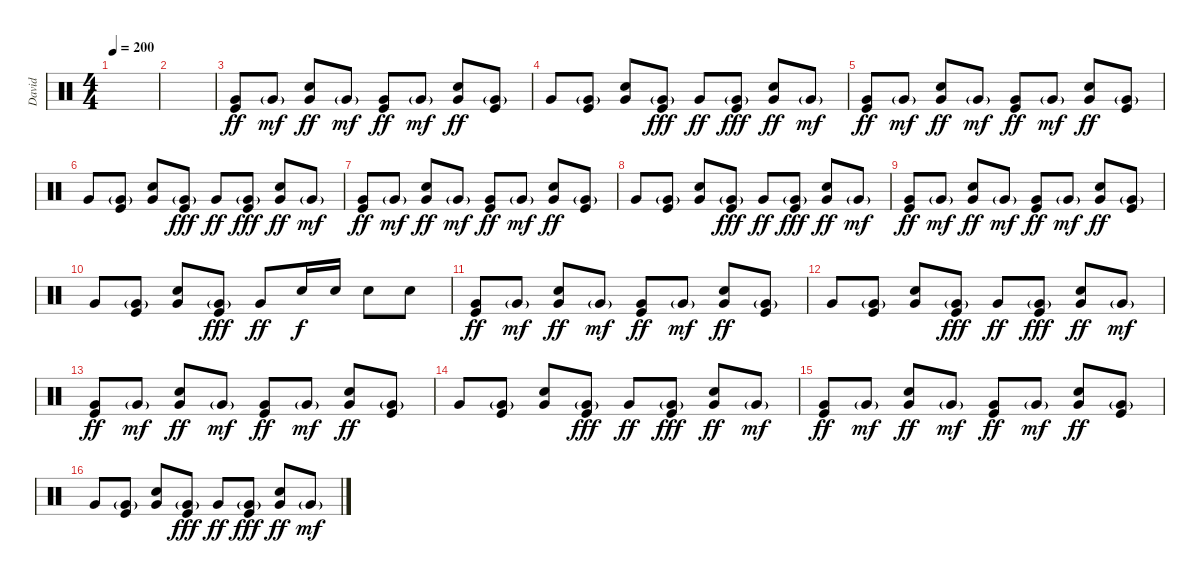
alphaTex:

\track ("David" "David") {instrument percussion}
\staff {score}
\articulation defaults
\ts (4 4)
\tempo 200
\clef neutral
\ks c
|
|
("Very Low Tom (hit)" "Kick (hit)").8{dy ff} "Very Low Tom (hit)"{g}.8{dy mf} ("Very Low Tom (hit)" "Electric Snare (hit)").8{dy ff} "Very Low Tom (hit)"{g}.8{dy mf} ("Very Low Tom (hit)" "Kick (hit)").8{dy ff} "Very Low Tom (hit)"{g}.8{dy mf} ("Very Low Tom (hit)" "Electric Snare (hit)").8{dy ff} ("Very Low Tom (hit)"{g} "Kick (hit)").8 |
"Very Low Tom (hit)".8 ("Very Low Tom (hit)"{g} "Kick (hit)").8 ("Very Low Tom (hit)" "Electric Snare (hit)").8 ("Very Low Tom (hit)"{g} "Kick (hit)").8{dy fff} "Very Low Tom (hit)".8{dy ff} ("Very Low Tom (hit)"{g} "Kick (hit)").8{dy fff} ("Very Low Tom (hit)" "Electric Snare (hit)").8{dy ff} "Very Low Tom (hit)"{g}.8{dy mf} |
("Very Low Tom (hit)" "Kick (hit)").8{dy ff} "Very Low Tom (hit)"{g}.8{dy mf} ("Very Low Tom (hit)" "Electric Snare (hit)").8{dy ff} "Very Low Tom (hit)"{g}.8{dy mf} ("Very Low Tom (hit)" "Kick (hit)").8{dy ff} "Very Low Tom (hit)"{g}.8{dy mf} ("Very Low Tom (hit)" "Electric Snare (hit)").8{dy ff} ("Very Low Tom (hit)"{g} "Kick (hit)").8 |
"Very Low Tom (hit)".8 ("Very Low Tom (hit)"{g} "Kick (hit)").8 ("Very Low Tom (hit)" "Electric Snare (hit)").8 ("Very Low Tom (hit)"{g} "Kick (hit)").8{dy fff} "Very Low Tom (hit)".8{dy ff} ("Very Low Tom (hit)"{g} "Kick (hit)").8{dy fff} ("Very Low Tom (hit)" "Electric Snare (hit)").8{dy ff} "Very Low Tom (hit)"{g}.8{dy mf} |
("Very Low Tom (hit)" "Kick (hit)").8{dy ff} "Very Low Tom (hit)"{g}.8{dy mf} ("Very Low Tom (hit)" "Electric Snare (hit)").8{dy ff} "Very Low Tom (hit)"{g}.8{dy mf} ("Very Low Tom (hit)" "Kick (hit)").8{dy ff} "Very Low Tom (hit)"{g}.8{dy mf} ("Very Low Tom (hit)" "Electric Snare (hit)").8{dy ff} ("Very Low Tom (hit)"{g} "Kick (hit)").8 |
"Very Low Tom (hit)".8 ("Very Low Tom (hit)"{g} "Kick (hit)").8 ("Very Low Tom (hit)" "Electric Snare (hit)").8 ("Very Low Tom (hit)"{g} "Kick (hit)").8{dy fff} "Very Low Tom (hit)".8{dy ff} ("Very Low Tom (hit)"{g} "Kick (hit)").8{dy fff} ("Very Low Tom (hit)" "Electric Snare (hit)").8{dy ff} "Very Low Tom (hit)"{g}.8{dy mf} |
("Very Low Tom (hit)" "Kick (hit)").8{dy ff} "Very Low Tom (hit)"{g}.8{dy mf} ("Very Low Tom (hit)" "Electric Snare (hit)").8{dy ff} "Very Low Tom (hit)"{g}.8{dy mf} ("Very Low Tom (hit)" "Kick (hit)").8{dy ff} "Very Low Tom (hit)"{g}.8{dy mf} ("Very Low Tom (hit)" "Electric Snare (hit)").8{dy ff} ("Very Low Tom (hit)"{g} "Kick (hit)").8 |
"Very Low Tom (hit)".8 ("Very Low Tom (hit)"{g} "Kick (hit)").8 ("Very Low Tom (hit)" "Electric Snare (hit)").8 ("Very Low Tom (hit)"{g} "Kick (hit)").8{dy fff} "Very Low Tom (hit)".8{dy ff} "Electric Snare (hit)".16{dy f} "Electric Snare (hit)".16 "Electric Snare (hit)".8 "Electric Snare (hit)".8 |
("Very Low Tom (hit)" "Kick (hit)").8{dy ff} "Very Low Tom (hit)"{g}.8{dy mf} ("Very Low Tom (hit)" "Electric Snare (hit)").8{dy ff} "Very Low Tom (hit)"{g}.8{dy mf} ("Very Low Tom (hit)" "Kick (hit)").8{dy ff} "Very Low Tom (hit)"{g}.8{dy mf} ("Very Low Tom (hit)" "Electric Snare (hit)").8{dy ff} ("Very Low Tom (hit)"{g} "Kick (hit)").8 |
"Very Low Tom (hit)".8 ("Very Low Tom (hit)"{g} "Kick (hit)").8 ("Very Low Tom (hit)" "Electric Snare (hit)").8 ("Very Low Tom (hit)"{g} "Kick (hit)").8{dy fff} "Very Low Tom (hit)".8{dy ff} ("Very Low Tom (hit)"{g} "Kick (hit)").8{dy fff} ("Very Low Tom (hit)" "Electric Snare (hit)").8{dy ff} "Very Low Tom (hit)"{g}.8{dy mf} |
("Very Low Tom (hit)" "Kick (hit)").8{dy ff} "Very Low Tom (hit)"{g}.8{dy mf} ("Very Low Tom (hit)" "Electric Snare (hit)").8{dy ff} "Very Low Tom (hit)"{g}.8{dy mf} ("Very Low Tom (hit)" "Kick (hit)").8{dy ff} "Very Low Tom (hit)"{g}.8{dy mf} ("Very Low Tom (hit)" "Electric Snare (hit)").8{dy ff} ("Very Low Tom (hit)"{g} "Kick (hit)").8 |
"Very Low Tom (hit)".8 ("Very Low Tom (hit)"{g} "Kick (hit)").8 ("Very Low Tom (hit)" "Electric Snare (hit)").8 ("Very Low Tom (hit)"{g} "Kick (hit)").8{dy fff} "Very Low Tom (hit)".8{dy ff} ("Very Low Tom (hit)"{g} "Kick (hit)").8{dy fff} ("Very Low Tom (hit)" "Electric Snare (hit)").8{dy ff} "Very Low Tom (hit)"{g}.8{dy mf} |
("Very Low Tom (hit)" "Kick (hit)").8{dy ff} "Very Low Tom (hit)"{g}.8{dy mf} ("Very Low Tom (hit)" "Electric Snare (hit)").8{dy ff} "Very Low Tom (hit)"{g}.8{dy mf} ("Very Low Tom (hit)" "Kick (hit)").8{dy ff} "Very Low Tom (hit)"{g}.8{dy mf} ("Very Low Tom (hit)" "Electric Snare (hit)").8{dy ff} ("Very Low Tom (hit)"{g} "Kick (hit)").8 |
"Very Low Tom (hit)".8 ("Very Low Tom (hit)"{g} "Kick (hit)").8 ("Very Low Tom (hit)" "Electric Snare (hit)").8 ("Very Low Tom (hit)"{g} "Kick (hit)").8{dy fff} "Very Low Tom (hit)".8{dy ff} ("Very Low Tom (hit)"{g} "Kick (hit)").8{dy fff} ("Very Low Tom (hit)" "Electric Snare (hit)").8{dy ff} "Very Low Tom (hit)"{g}.8{dy mf}
